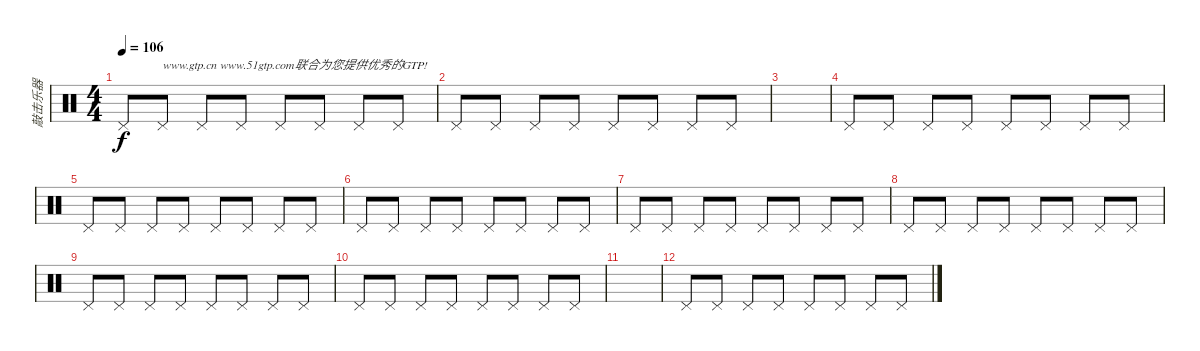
\track ("敲击乐器" "敲击乐器") {instrument percussion}
\staff {score}
\articulation defaults
\ts (4 4)
\tempo 106
\clef neutral
\ks c "Pedal Hi-Hat (hit)".8{dy f} "Pedal Hi-Hat (hit)".8{txt "www.gtp.cn www.51gtp.com联合为您提供优秀的GTP!"} "Pedal Hi-Hat (hit)".8 "Pedal Hi-Hat (hit)".8 "Pedal Hi-Hat (hit)".8 "Pedal Hi-Hat (hit)".8 "Pedal Hi-Hat (hit)".8 "Pedal Hi-Hat (hit)".8
|
"Pedal Hi-Hat (hit)".8 "Pedal Hi-Hat (hit)".8 "Pedal Hi-Hat (hit)".8 "Pedal Hi-Hat (hit)".8 "Pedal Hi-Hat (hit)".8 "Pedal Hi-Hat (hit)".8 "Pedal Hi-Hat (hit)".8 "Pedal Hi-Hat (hit)".8 |
|
"Pedal Hi-Hat (hit)".8 "Pedal Hi-Hat (hit)".8 "Pedal Hi-Hat (hit)".8 "Pedal Hi-Hat (hit)".8 "Pedal Hi-Hat (hit)".8 "Pedal Hi-Hat (hit)".8 "Pedal Hi-Hat (hit)".8 "Pedal Hi-Hat (hit)".8 |
"Pedal Hi-Hat (hit)".8 "Pedal Hi-Hat (hit)".8 "Pedal Hi-Hat (hit)".8 "Pedal Hi-Hat (hit)".8 "Pedal Hi-Hat (hit)".8 "Pedal Hi-Hat (hit)".8 "Pedal Hi-Hat (hit)".8 "Pedal Hi-Hat (hit)".8 |
"Pedal Hi-Hat (hit)".8 "Pedal Hi-Hat (hit)".8 "Pedal Hi-Hat (hit)".8 "Pedal Hi-Hat (hit)".8 "Pedal Hi-Hat (hit)".8 "Pedal Hi-Hat (hit)".8 "Pedal Hi-Hat (hit)".8 "Pedal Hi-Hat (hit)".8 |
"Pedal Hi-Hat (hit)".8 "Pedal Hi-Hat (hit)".8 "Pedal Hi-Hat (hit)".8 "Pedal Hi-Hat (hit)".8 "Pedal Hi-Hat (hit)".8 "Pedal Hi-Hat (hit)".8 "Pedal Hi-Hat (hit)".8 "Pedal Hi-Hat (hit)".8 |
"Pedal Hi-Hat (hit)".8 "Pedal Hi-Hat (hit)".8 "Pedal Hi-Hat (hit)".8 "Pedal Hi-Hat (hit)".8 "Pedal Hi-Hat (hit)".8 "Pedal Hi-Hat (hit)".8 "Pedal Hi-Hat (hit)".8 "Pedal Hi-Hat (hit)".8 |
"Pedal Hi-Hat (hit)".8 "Pedal Hi-Hat (hit)".8 "Pedal Hi-Hat (hit)".8 "Pedal Hi-Hat (hit)".8 "Pedal Hi-Hat (hit)".8 "Pedal Hi-Hat (hit)".8 "Pedal Hi-Hat (hit)".8 "Pedal Hi-Hat (hit)".8 |
"Pedal Hi-Hat (hit)".8 "Pedal Hi-Hat (hit)".8 "Pedal Hi-Hat (hit)".8 "Pedal Hi-Hat (hit)".8 "Pedal Hi-Hat (hit)".8 "Pedal Hi-Hat (hit)".8 "Pedal Hi-Hat (hit)".8 "Pedal Hi-Hat (hit)".8 |
|
"Pedal Hi-Hat (hit)".8 "Pedal Hi-Hat (hit)".8 "Pedal Hi-Hat (hit)".8 "Pedal Hi-Hat (hit)".8 "Pedal Hi-Hat (hit)".8 "Pedal Hi-Hat (hit)".8 "Pedal Hi-Hat (hit)".8 "Pedal Hi-Hat (hit)".8
